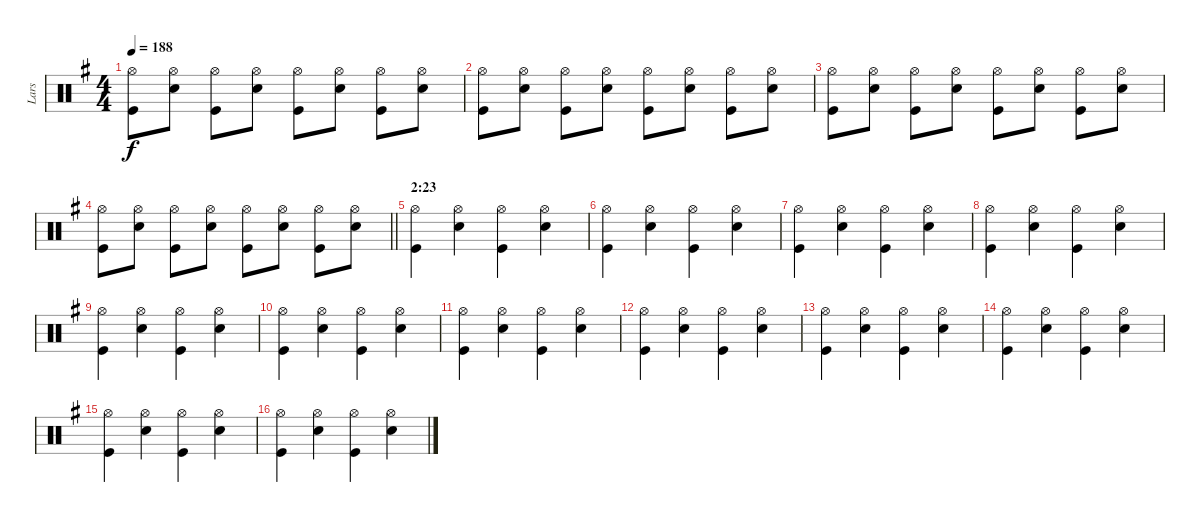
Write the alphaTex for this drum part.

\track ("Lars" "Lars") {instrument percussion}
\staff {score}
\articulation defaults
\ts (4 4)
\tempo 188
\clef neutral
\ks eminor
("Hi-Hat (open)" "Kick (hit)").8{dy f} ("Hi-Hat (open)" "Snare (hit) 2").8 ("Hi-Hat (open)" "Kick (hit)").8 ("Hi-Hat (open)" "Snare (hit) 2").8 ("Hi-Hat (open)" "Kick (hit)").8 ("Hi-Hat (open)" "Snare (hit) 2").8 ("Hi-Hat (open)" "Kick (hit)").8 ("Hi-Hat (open)" "Snare (hit) 2").8 |
("Hi-Hat (open)" "Kick (hit)").8 ("Hi-Hat (open)" "Snare (hit) 2").8 ("Hi-Hat (open)" "Kick (hit)").8 ("Hi-Hat (open)" "Snare (hit) 2").8 ("Hi-Hat (open)" "Kick (hit)").8 ("Hi-Hat (open)" "Snare (hit) 2").8 ("Hi-Hat (open)" "Kick (hit)").8 ("Snare (hit) 2" "Hi-Hat (open)").8 |
("Hi-Hat (open)" "Kick (hit)").8 ("Hi-Hat (open)" "Snare (hit) 2").8 ("Hi-Hat (open)" "Kick (hit)").8 ("Hi-Hat (open)" "Snare (hit) 2").8 ("Hi-Hat (open)" "Kick (hit)").8 ("Hi-Hat (open)" "Snare (hit) 2").8 ("Hi-Hat (open)" "Kick (hit)").8 ("Snare (hit) 2" "Hi-Hat (open)").8 |
\barLineRight lightlight
("Hi-Hat (open)" "Kick (hit)").8 ("Hi-Hat (open)" "Snare (hit) 2").8 ("Hi-Hat (open)" "Kick (hit)").8 ("Hi-Hat (open)" "Snare (hit) 2").8 ("Hi-Hat (open)" "Kick (hit)").8 ("Hi-Hat (open)" "Snare (hit) 2").8 ("Hi-Hat (open)" "Kick (hit)").8 ("Snare (hit) 2" "Hi-Hat (open)").8 |
\section ("" "2:23")
("Hi-Hat (open)" "Kick (hit)").4 ("Hi-Hat (open)" "Snare (hit) 2").4 ("Hi-Hat (open)" "Kick (hit)").4 ("Hi-Hat (open)" "Snare (hit) 2").4 |
("Hi-Hat (open)" "Kick (hit)").4 ("Hi-Hat (open)" "Snare (hit) 2").4 ("Hi-Hat (open)" "Kick (hit)").4 ("Hi-Hat (open)" "Snare (hit) 2").4 |
("Hi-Hat (open)" "Kick (hit)").4 ("Hi-Hat (open)" "Snare (hit) 2").4 ("Hi-Hat (open)" "Kick (hit)").4 ("Hi-Hat (open)" "Snare (hit) 2").4 |
("Hi-Hat (open)" "Kick (hit)").4 ("Hi-Hat (open)" "Snare (hit) 2").4 ("Hi-Hat (open)" "Kick (hit)").4 ("Hi-Hat (open)" "Snare (hit) 2").4 |
("Hi-Hat (open)" "Kick (hit)").4 ("Hi-Hat (open)" "Snare (hit) 2").4 ("Hi-Hat (open)" "Kick (hit)").4 ("Hi-Hat (open)" "Snare (hit) 2").4 |
("Hi-Hat (open)" "Kick (hit)").4 ("Hi-Hat (open)" "Snare (hit) 2").4 ("Hi-Hat (open)" "Kick (hit)").4 ("Hi-Hat (open)" "Snare (hit) 2").4 |
("Hi-Hat (open)" "Kick (hit)").4 ("Hi-Hat (open)" "Snare (hit) 2").4 ("Hi-Hat (open)" "Kick (hit)").4 ("Hi-Hat (open)" "Snare (hit) 2").4 |
("Hi-Hat (open)" "Kick (hit)").4 ("Hi-Hat (open)" "Snare (hit) 2").4 ("Hi-Hat (open)" "Kick (hit)").4 ("Hi-Hat (open)" "Snare (hit) 2").4 |
("Hi-Hat (open)" "Kick (hit)").4 ("Hi-Hat (open)" "Snare (hit) 2").4 ("Hi-Hat (open)" "Kick (hit)").4 ("Hi-Hat (open)" "Snare (hit) 2").4 |
("Hi-Hat (open)" "Kick (hit)").4 ("Hi-Hat (open)" "Snare (hit) 2").4 ("Hi-Hat (open)" "Kick (hit)").4 ("Hi-Hat (open)" "Snare (hit) 2").4 |
("Hi-Hat (open)" "Kick (hit)").4 ("Hi-Hat (open)" "Snare (hit) 2").4 ("Hi-Hat (open)" "Kick (hit)").4 ("Hi-Hat (open)" "Snare (hit) 2").4 |
("Hi-Hat (open)" "Kick (hit)").4 ("Hi-Hat (open)" "Snare (hit) 2").4 ("Hi-Hat (open)" "Kick (hit)").4 ("Hi-Hat (open)" "Snare (hit) 2").4
